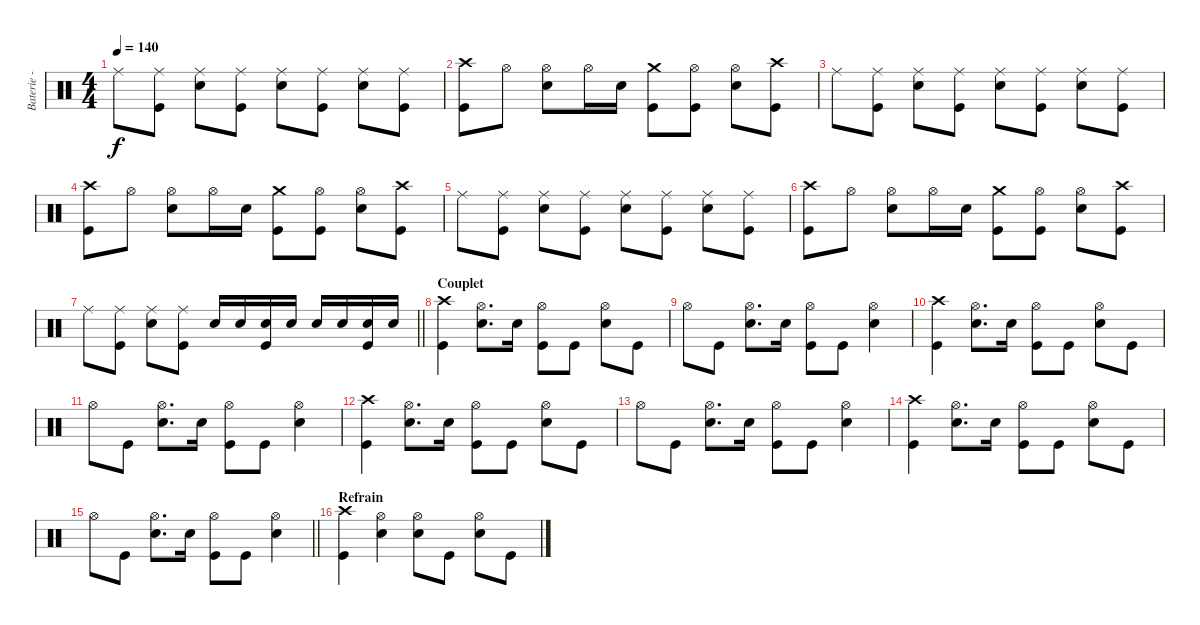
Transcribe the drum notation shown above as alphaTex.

\track ("Baterie - Dave Grohl" "Baterie - ") {instrument percussion}
\staff {score}
\articulation defaults
\ts (4 4)
\tempo 140
\clef neutral
\ks c "Ride (middle)".8{dy f}
("Ride (middle)" "Kick (hit)").8 ("Ride (middle)" "Electric Snare (hit)").8 ("Ride (middle)" "Kick (hit)").8 ("Ride (middle)" "Electric Snare (hit)").8 ("Ride (middle)" "Kick (hit)").8 ("Ride (middle)" "Electric Snare (hit)").8 ("Ride (middle)" "Kick (hit)").8 |
("Crash high (hit)" "Kick (hit)").8 "Hi-Hat (open)".8 ("Hi-Hat (open)" "Electric Snare (hit)").8 "Hi-Hat (open)".16 "Electric Snare (hit)".16 ("Crash medium (hit)" "Kick (hit)").8 ("Hi-Hat (open)" "Kick (hit)").8 ("Hi-Hat (open)" "Electric Snare (hit)").8 ("Crash high (hit)" "Kick (hit)").8 |
"Ride (middle)".8 ("Ride (middle)" "Kick (hit)").8 ("Ride (middle)" "Electric Snare (hit)").8 ("Ride (middle)" "Kick (hit)").8 ("Ride (middle)" "Electric Snare (hit)").8 ("Ride (middle)" "Kick (hit)").8 ("Ride (middle)" "Electric Snare (hit)").8 ("Ride (middle)" "Kick (hit)").8 |
("Crash high (hit)" "Kick (hit)").8 "Hi-Hat (open)".8 ("Hi-Hat (open)" "Electric Snare (hit)").8 "Hi-Hat (open)".16 "Electric Snare (hit)".16 ("Crash medium (hit)" "Kick (hit)").8 ("Hi-Hat (open)" "Kick (hit)").8 ("Hi-Hat (open)" "Electric Snare (hit)").8 ("Crash high (hit)" "Kick (hit)").8 |
"Ride (middle)".8 ("Ride (middle)" "Kick (hit)").8 ("Ride (middle)" "Electric Snare (hit)").8 ("Ride (middle)" "Kick (hit)").8 ("Ride (middle)" "Electric Snare (hit)").8 ("Ride (middle)" "Kick (hit)").8 ("Ride (middle)" "Electric Snare (hit)").8 ("Ride (middle)" "Kick (hit)").8 |
("Crash high (hit)" "Kick (hit)").8 "Hi-Hat (open)".8 ("Hi-Hat (open)" "Electric Snare (hit)").8 "Hi-Hat (open)".16 "Electric Snare (hit)".16 ("Crash medium (hit)" "Kick (hit)").8 ("Hi-Hat (open)" "Kick (hit)").8 ("Hi-Hat (open)" "Electric Snare (hit)").8 ("Crash high (hit)" "Kick (hit)").8 |
\barLineRight lightlight "Ride (middle)".8
("Ride (middle)" "Kick (hit)").8 ("Ride (middle)" "Electric Snare (hit)").8 ("Ride (middle)" "Kick (hit)").8 "Electric Snare (hit)".16 "Electric Snare (hit)".16 ("Electric Snare (hit)" "Kick (hit)").16 "Electric Snare (hit)".16 "Electric Snare (hit)".16 "Electric Snare (hit)".16 ("Electric Snare (hit)" "Kick (hit)").16 "Electric Snare (hit)".16 |
\section ("" "Couplet")
("Crash high (hit)" "Kick (hit)").4 ("Hi-Hat (open)" "Electric Snare (hit)").8{d} "Electric Snare (hit)".16 ("Hi-Hat (open)" "Kick (hit)").8 "Kick (hit)".8 ("Hi-Hat (open)" "Electric Snare (hit)").8 "Kick (hit)".8 |
"Hi-Hat (open)".8 "Kick (hit)".8 ("Hi-Hat (open)" "Electric Snare (hit)").8{d} "Electric Snare (hit)".16 ("Hi-Hat (open)" "Kick (hit)").8 "Kick (hit)".8 ("Hi-Hat (open)" "Electric Snare (hit)").4 |
("Crash high (hit)" "Kick (hit)").4 ("Hi-Hat (open)" "Electric Snare (hit)").8{d} "Electric Snare (hit)".16 ("Hi-Hat (open)" "Kick (hit)").8 "Kick (hit)".8 ("Hi-Hat (open)" "Electric Snare (hit)").8 "Kick (hit)".8 |
"Hi-Hat (open)".8 "Kick (hit)".8 ("Hi-Hat (open)" "Electric Snare (hit)").8{d} "Electric Snare (hit)".16 ("Hi-Hat (open)" "Kick (hit)").8 "Kick (hit)".8 ("Hi-Hat (open)" "Electric Snare (hit)").4 |
("Crash high (hit)" "Kick (hit)").4 ("Hi-Hat (open)" "Electric Snare (hit)").8{d} "Electric Snare (hit)".16 ("Hi-Hat (open)" "Kick (hit)").8 "Kick (hit)".8 ("Hi-Hat (open)" "Electric Snare (hit)").8 "Kick (hit)".8 |
"Hi-Hat (open)".8 "Kick (hit)".8 ("Hi-Hat (open)" "Electric Snare (hit)").8{d} "Electric Snare (hit)".16 ("Hi-Hat (open)" "Kick (hit)").8 "Kick (hit)".8 ("Hi-Hat (open)" "Electric Snare (hit)").4 |
("Crash high (hit)" "Kick (hit)").4 ("Hi-Hat (open)" "Electric Snare (hit)").8{d} "Electric Snare (hit)".16 ("Hi-Hat (open)" "Kick (hit)").8 "Kick (hit)".8 ("Hi-Hat (open)" "Electric Snare (hit)").8 "Kick (hit)".8 |
\barLineRight lightlight "Hi-Hat (open)".8 "Kick (hit)".8
("Hi-Hat (open)" "Electric Snare (hit)").8{d} "Electric Snare (hit)".16 ("Hi-Hat (open)" "Kick (hit)").8 "Kick (hit)".8 ("Hi-Hat (open)" "Electric Snare (hit)").4 |
\section ("" "Refrain")
("Crash high (hit)" "Kick (hit)").4 ("Hi-Hat (open)" "Electric Snare (hit)").4 ("Hi-Hat (open)" "Electric Snare (hit)").8 "Kick (hit)".8 ("Hi-Hat (open)" "Electric Snare (hit)").8 "Kick (hit)".8
